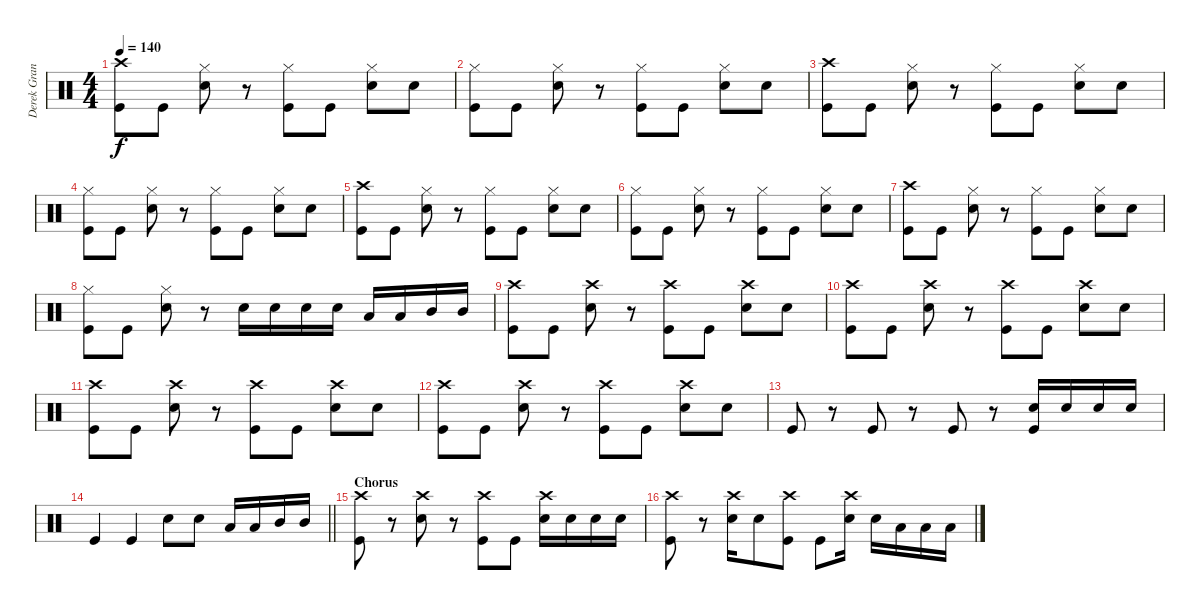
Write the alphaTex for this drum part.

\track ("Derek Grant" "Derek Gran") {instrument percussion}
\staff {score}
\articulation defaults
\ts (4 4)
\tempo 140
\clef neutral
\ks c
("Crash high (hit)" "Kick (hit)").8{dy f} "Kick (hit)".8 ("Hi-Hat (closed)" "Snare (hit) 2").8 r.8 ("Hi-Hat (closed)" "Kick (hit)").8 "Kick (hit)".8 ("Hi-Hat (closed)" "Snare (hit) 2").8 "Snare (hit) 2".8 |
("Hi-Hat (closed)" "Kick (hit)").8 "Kick (hit)".8 ("Hi-Hat (closed)" "Snare (hit) 2").8 r.8 ("Hi-Hat (closed)" "Kick (hit)").8 "Kick (hit)".8 ("Hi-Hat (closed)" "Snare (hit) 2").8 "Snare (hit) 2".8 |
("Crash high (hit)" "Kick (hit)").8 "Kick (hit)".8 ("Hi-Hat (closed)" "Snare (hit) 2").8 r.8 ("Hi-Hat (closed)" "Kick (hit)").8 "Kick (hit)".8 ("Hi-Hat (closed)" "Snare (hit) 2").8 "Snare (hit) 2".8 |
("Hi-Hat (closed)" "Kick (hit)").8 "Kick (hit)".8 ("Hi-Hat (closed)" "Snare (hit) 2").8 r.8 ("Hi-Hat (closed)" "Kick (hit)").8 "Kick (hit)".8 ("Hi-Hat (closed)" "Snare (hit) 2").8 "Snare (hit) 2".8 |
("Crash high (hit)" "Kick (hit)").8 "Kick (hit)".8 ("Hi-Hat (closed)" "Snare (hit) 2").8 r.8 ("Hi-Hat (closed)" "Kick (hit)").8 "Kick (hit)".8 ("Hi-Hat (closed)" "Snare (hit) 2").8 "Snare (hit) 2".8 |
("Hi-Hat (closed)" "Kick (hit)").8 "Kick (hit)".8 ("Hi-Hat (closed)" "Snare (hit) 2").8 r.8 ("Hi-Hat (closed)" "Kick (hit)").8 "Kick (hit)".8 ("Hi-Hat (closed)" "Snare (hit) 2").8 "Snare (hit) 2".8 |
("Crash high (hit)" "Kick (hit)").8 "Kick (hit)".8 ("Hi-Hat (closed)" "Snare (hit) 2").8 r.8 ("Hi-Hat (closed)" "Kick (hit)").8 "Kick (hit)".8 ("Hi-Hat (closed)" "Snare (hit) 2").8 "Snare (hit) 2".8 |
("Hi-Hat (closed)" "Kick (hit)").8 "Kick (hit)".8 ("Hi-Hat (closed)" "Snare (hit) 2").8 r.8 "Snare (hit) 2".16 "Snare (hit) 2".16 "Snare (hit) 2".16 "Snare (hit) 2".16 "Low Tom (hit)".16 "Low Tom (hit)".16 "Mid Tom (hit)".16 "Mid Tom (hit)".16 |
("Crash high (hit)" "Kick (hit)").8 "Kick (hit)".8 ("Crash high (hit)" "Snare (hit) 2").8 r.8 ("Crash high (hit)" "Kick (hit)").8 "Kick (hit)".8 ("Crash high (hit)" "Snare (hit) 2").8 "Snare (hit) 2".8 |
("Crash high (hit)" "Kick (hit)").8 "Kick (hit)".8 ("Crash high (hit)" "Snare (hit) 2").8 r.8 ("Crash high (hit)" "Kick (hit)").8 "Kick (hit)".8 ("Crash high (hit)" "Snare (hit) 2").8 "Snare (hit) 2".8 |
("Crash high (hit)" "Kick (hit)").8 "Kick (hit)".8 ("Crash high (hit)" "Snare (hit) 2").8 r.8 ("Crash high (hit)" "Kick (hit)").8 "Kick (hit)".8 ("Crash high (hit)" "Snare (hit) 2").8 "Snare (hit) 2".8 |
("Crash high (hit)" "Kick (hit)").8 "Kick (hit)".8 ("Crash high (hit)" "Snare (hit) 2").8 r.8 ("Crash high (hit)" "Kick (hit)").8 "Kick (hit)".8 ("Crash high (hit)" "Snare (hit) 2").8 "Snare (hit) 2".8 |
"Kick (hit)".8 r.8 "Kick (hit)".8 r.8 "Kick (hit)".8 r.8 ("Snare (hit) 2" "Kick (hit)").16 "Snare (hit) 2".16 "Snare (hit) 2".16 "Snare (hit) 2".16 |
\barLineRight lightlight "Kick (hit)".4 "Kick (hit)".4 "Snare (hit) 2".8 "Snare (hit) 2".8 "Low Tom (hit)".16 "Low Tom (hit)".16 "Mid Tom (hit)".16 "Mid Tom (hit)".16
|
\section ("" "Chorus")
("Crash high (hit)" "Kick (hit)").8 r.8 ("Crash high (hit)" "Snare (hit) 2").8 r.8 ("Crash high (hit)" "Kick (hit)").8 "Kick (hit)".8 ("Crash high (hit)" "Snare (hit) 2").16 "Snare (hit) 2".16 "Snare (hit) 2".16 "Snare (hit) 2".16 |
("Crash high (hit)" "Kick (hit)").8 r.8 ("Crash high (hit)" "Snare (hit) 2").16 "Snare (hit) 2".8 ("Crash high (hit)" "Kick (hit)").8 "Kick (hit)".8 ("Crash high (hit)" "Snare (hit) 2").16 "Snare (hit) 2".16 "Low Tom (hit)".16 "Low Tom (hit)".16 "Low Tom (hit)".16
